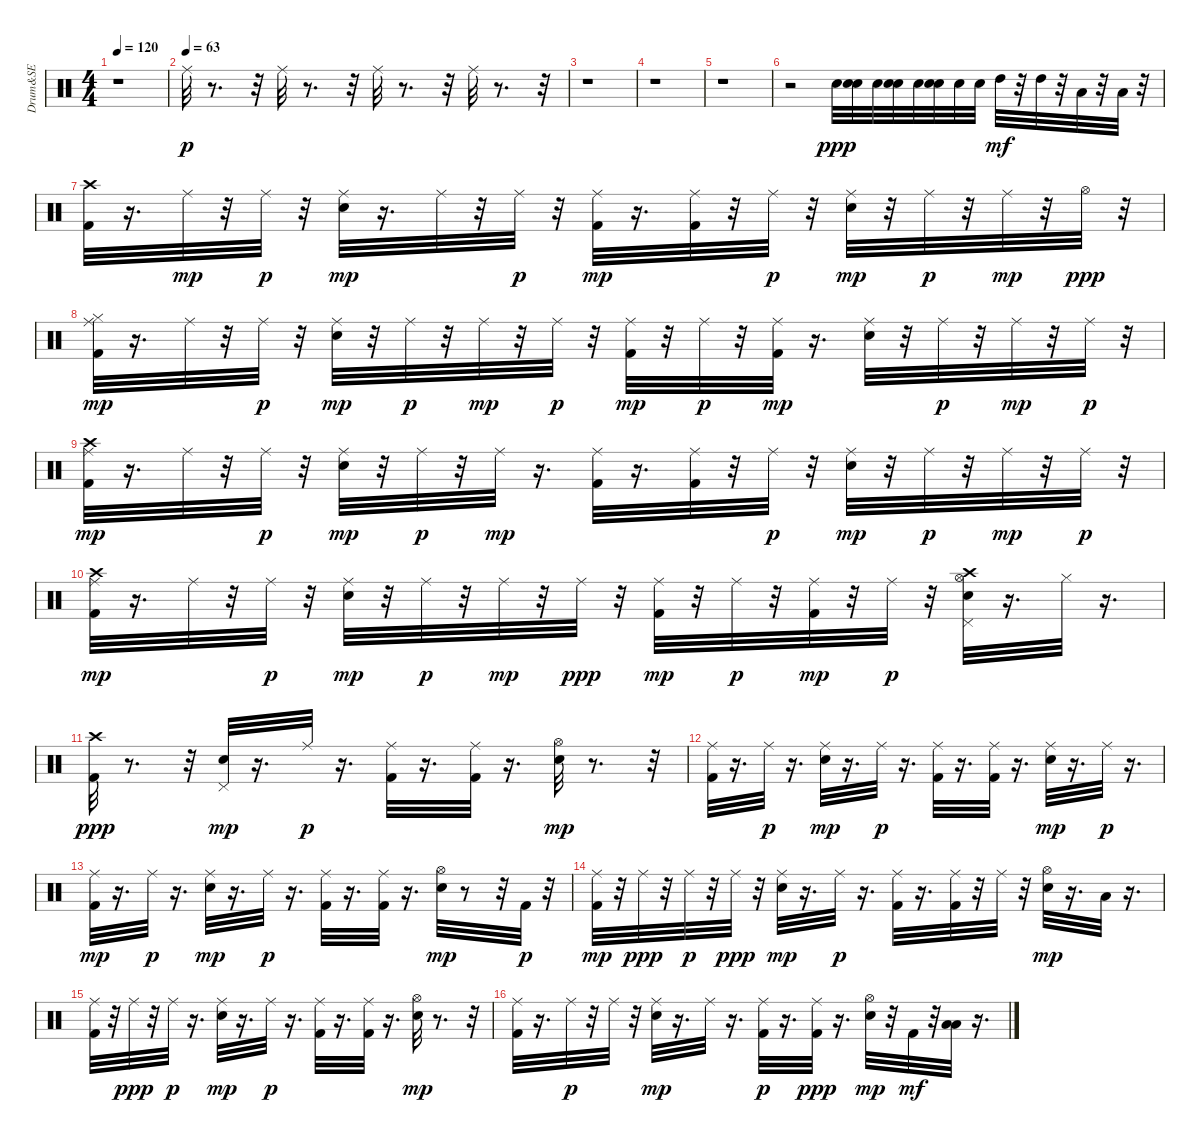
\track ("Drum&SE" "Drum&SE") {instrument percussion}
\staff {score}
\articulation defaults
\ts (4 4)
\tempo 120
\clef neutral
\ks c
r.1{dy p} |
\tempo (63)
"Ride (middle)".32 r.8{d} r.32 "Ride (middle)".32 r.8{d} r.32 "Ride (middle)".32 r.8{d} r.32 "Ride (middle)".32 r.8{d} r.32 |
r.1 |
r.1 |
r.1 |
r.2 "Snare (hit) 2".32{dy ppp} ("Snare (hit) 2" "Snare (hit) 2").32 "Snare (hit) 2".32 ("Snare (hit) 2" "Snare (hit) 2").32 "Snare (hit) 2".32 ("Snare (hit) 2" "Snare (hit) 2").32 "Snare (hit) 2".32 "Snare (hit) 2".32 "High Tom (hit)".32{dy mf} r.32 "High Tom (hit)".32 r.32 "Low Floor Tom (hit)".32 r.32 "Low Tom (hit)".32 r.32 |
("Kick (hit) 2" "Crash high (hit)").32 r.16{d} "Ride (middle)".32{dy mp} r.32 "Ride (middle)".32{dy p} r.32 ("Snare (hit) 2" "Ride (middle)").32{dy mp} r.16{d} "Ride (middle)".32 r.32 "Ride (middle)".32{dy p} r.32 ("Kick (hit) 2" "Ride (middle)").32{dy mp} r.16{d} ("Kick (hit) 2" "Ride (middle)").32 r.32 "Ride (middle)".32{dy p} r.32 ("Snare (hit) 2" "Ride (middle)").32{dy mp} r.32 "Ride (middle)".32{dy p} r.32 "Ride (middle)".32{dy mp} r.32 "Hi-Hat (open)".32{dy ppp} r.32 |
("Kick (hit) 2" "Hi-Hat (closed)" "Ride (middle)").32{dy mp} r.16{d} "Ride (middle)".32 r.32 "Ride (middle)".32{dy p} r.32 ("Snare (hit) 2" "Ride (middle)").32{dy mp} r.32 "Ride (middle)".32{dy p} r.32 "Ride (middle)".32{dy mp} r.32 "Ride (middle)".32{dy p} r.32 ("Kick (hit) 2" "Ride (middle)").32{dy mp} r.32 "Ride (middle)".32{dy p} r.32 ("Kick (hit) 2" "Ride (middle)").32{dy mp} r.16{d} ("Snare (hit) 2" "Ride (middle)").32 r.32 "Ride (middle)".32{dy p} r.32 "Ride (middle)".32{dy mp} r.32 "Ride (middle)".32{dy p} r.32 |
("Kick (hit) 2" "Crash high (hit)" "Ride (middle)").32{dy mp} r.16{d} "Ride (middle)".32 r.32 "Ride (middle)".32{dy p} r.32 ("Snare (hit) 2" "Ride (middle)").32{dy mp} r.32 "Ride (middle)".32{dy p} r.32 "Ride (middle)".32{dy mp} r.16{d} ("Kick (hit) 2" "Ride (middle)").32 r.16{d} ("Kick (hit) 2" "Ride (middle)").32 r.32 "Ride (middle)".32{dy p} r.32 ("Snare (hit) 2" "Ride (middle)").32{dy mp} r.32 "Ride (middle)".32{dy p} r.32 "Ride (middle)".32{dy mp} r.32 "Ride (middle)".32{dy p} r.32 |
("Kick (hit) 2" "Crash high (hit)" "Ride (middle)").32{dy mp} r.16{d} "Ride (middle)".32 r.32 "Ride (middle)".32{dy p} r.32 ("Snare (hit) 2" "Ride (middle)").32{dy mp} r.32 "Ride (middle)".32{dy p} r.32 "Ride (middle)".32{dy mp} r.32 "Ride (middle)".32{dy ppp} r.32 ("Kick (hit) 2" "Ride (middle)").32{dy mp} r.32 "Ride (middle)".32{dy p} r.32 ("Kick (hit) 2" "Ride (middle)").32{dy mp} r.32 "Ride (middle)".32{dy p} r.32 ("Snare (hit) 2" "Pedal Hi-Hat (hit)" "Hi-Hat (open)" "Crash high (hit)").32 r.16{d} "Hi-Hat (closed)".32 r.16{d} |
("Kick (hit) 2" "Crash high (hit)").32{dy ppp} r.8{d} r.32 ("Snare (hit) 2" "Pedal Hi-Hat (hit)").32{dy mp} r.16{d} "Ride (middle)".32{dy p} r.16{d} ("Kick (hit) 2" "Ride (middle)").32 r.16{d} ("Kick (hit) 2" "Ride (middle)").32 r.16{d} ("Snare (hit) 2" "Hi-Hat (open)").32{dy mp} r.8{d} r.32 |
("Kick (hit) 2" "Ride (middle)").32 r.16{d} "Ride (middle)".32{dy p} r.16{d} ("Snare (hit) 2" "Ride (middle)").32{dy mp} r.16{d} "Ride (middle)".32{dy p} r.16{d} ("Kick (hit) 2" "Ride (middle)").32 r.16{d} ("Kick (hit) 2" "Ride (middle)").32 r.16{d} ("Snare (hit) 2" "Ride (middle)").32{dy mp} r.16{d} "Ride (middle)".32{dy p} r.16{d} |
("Kick (hit) 2" "Ride (middle)").32{dy mp} r.16{d} "Ride (middle)".32{dy p} r.16{d} ("Snare (hit) 2" "Ride (middle)").32{dy mp} r.16{d} "Ride (middle)".32{dy p} r.16{d} ("Kick (hit) 2" "Ride (middle)").32 r.16{d} ("Kick (hit) 2" "Ride (middle)").32 r.16{d} ("Snare (hit) 2" "Hi-Hat (open)").32{dy mp} r.8 r.32 "Kick (hit) 2".32{dy p} r.32 |
("Kick (hit) 2" "Ride (middle)").32{dy mp} r.32 "Ride (middle)".32{dy ppp} r.32 "Ride (middle)".32{dy p} r.32 "Ride (middle)".32{dy ppp} r.32 ("Snare (hit) 2" "Ride (middle)").32{dy mp} r.16{d} "Ride (middle)".32{dy p} r.16{d} ("Kick (hit) 2" "Ride (middle)").32 r.16{d} ("Kick (hit) 2" "Ride (middle)").32 r.32 "Ride (middle)".32 r.32 ("Snare (hit) 2" "Hi-Hat (open)").32{dy mp} r.16{d} "Low Tom (hit)".32 r.16{d} |
("Kick (hit) 2" "Ride (middle)").32 r.32 "Ride (middle)".32{dy ppp} r.32 "Ride (middle)".32{dy p} r.16{d} ("Snare (hit) 2" "Ride (middle)").32{dy mp} r.16{d} "Ride (middle)".32{dy p} r.16{d} ("Kick (hit) 2" "Ride (middle)").32 r.16{d} ("Kick (hit) 2" "Ride (middle)").32 r.16{d} ("Snare (hit) 2" "Hi-Hat (open)").32{dy mp} r.8{d} r.32 |
("Kick (hit) 2" "Ride (middle)").32 r.16{d} "Ride (middle)".32{dy p} r.32 "Ride (middle)".32 r.32 ("Snare (hit) 2" "Ride (middle)").32{dy mp} r.16{d} "Ride (middle)".32 r.16{d} ("Kick (hit) 2" "Ride (middle)").32{dy p} r.16{d} ("Kick (hit) 2" "Ride (middle)").32{dy ppp} r.16{d} ("Snare (hit) 2" "Hi-Hat (open)").32{dy mp} r.32 "Kick (hit) 2".32{dy mf} r.32 ("Low Floor Tom (hit)" "Low Tom (hit)").32 r.16{d}
